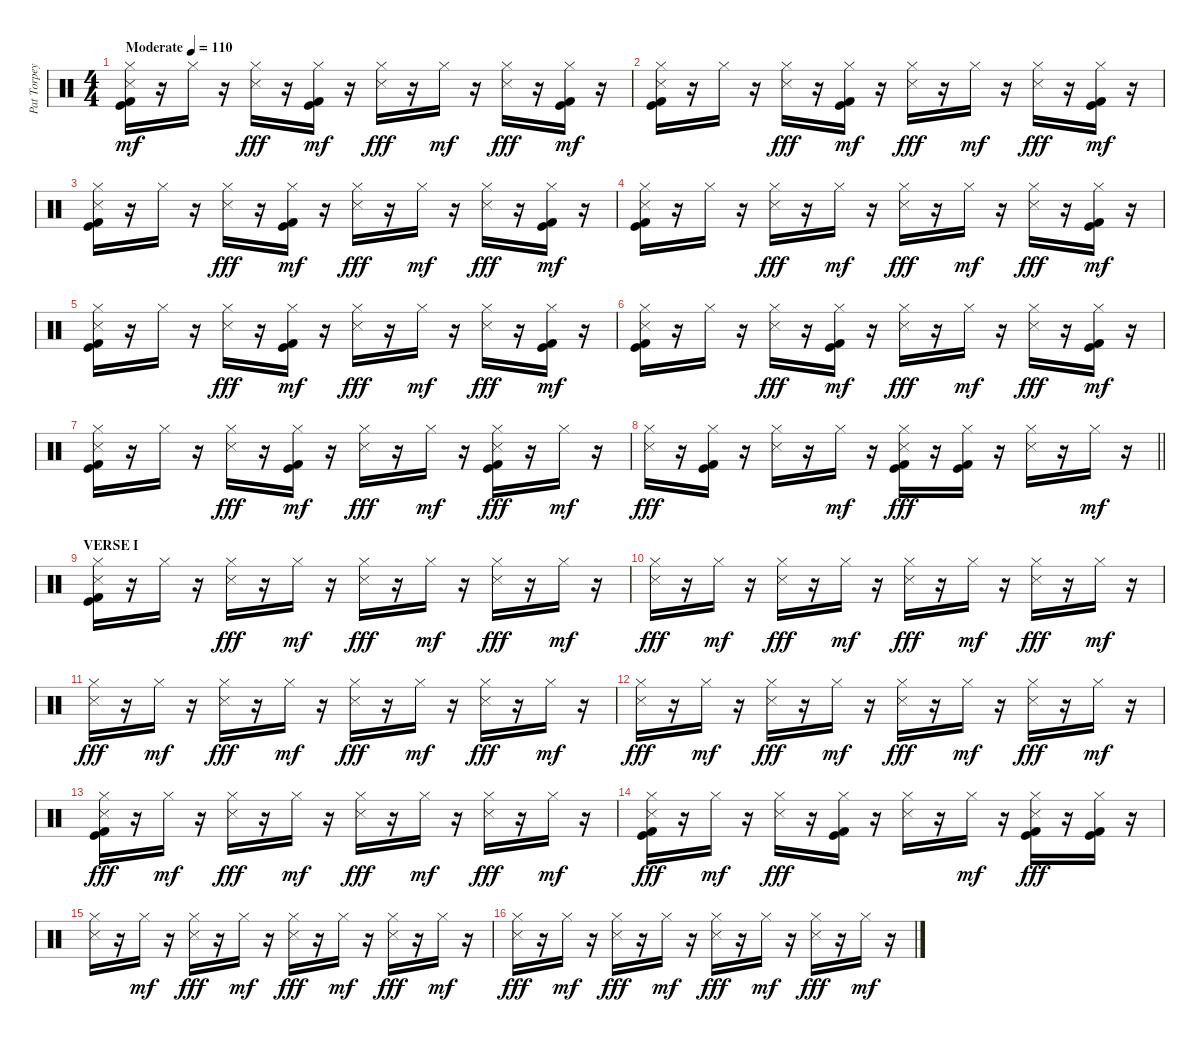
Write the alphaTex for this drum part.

\track ("Pat Torpey" "Pat Torpey") {instrument percussion}
\staff {score}
\articulation defaults
\ts (4 4)
\tempo (110 "Moderate")
\clef neutral
\ks c
("Snare (side stick) 3" "Hi-Hat (closed)" "Kick (hit)" "Kick (hit) 2").16{dy mf} r.16 "Hi-Hat (closed)".16 r.16 ("Snare (side stick) 3" "Hi-Hat (closed)").16{dy fff} r.16 ("Hi-Hat (closed)" "Kick (hit)" "Kick (hit) 2").16{dy mf} r.16 ("Snare (side stick) 3" "Hi-Hat (closed)").16{dy fff} r.16 "Hi-Hat (closed)".16{dy mf} r.16 ("Snare (side stick) 3" "Hi-Hat (closed)").16{dy fff} r.16 ("Hi-Hat (closed)" "Kick (hit)" "Kick (hit) 2").16{dy mf} r.16 |
("Snare (side stick) 3" "Hi-Hat (closed)" "Kick (hit)" "Kick (hit) 2").16 r.16 "Hi-Hat (closed)".16 r.16 ("Snare (side stick) 3" "Hi-Hat (closed)").16{dy fff} r.16 ("Hi-Hat (closed)" "Kick (hit)" "Kick (hit) 2").16{dy mf} r.16 ("Snare (side stick) 3" "Hi-Hat (closed)").16{dy fff} r.16 "Hi-Hat (closed)".16{dy mf} r.16 ("Snare (side stick) 3" "Hi-Hat (closed)").16{dy fff} r.16 ("Hi-Hat (closed)" "Kick (hit)" "Kick (hit) 2").16{dy mf} r.16 |
("Snare (side stick) 3" "Hi-Hat (closed)" "Kick (hit)" "Kick (hit) 2").16 r.16 "Hi-Hat (closed)".16 r.16 ("Snare (side stick) 3" "Hi-Hat (closed)").16{dy fff} r.16 ("Hi-Hat (closed)" "Kick (hit)" "Kick (hit) 2").16{dy mf} r.16 ("Snare (side stick) 3" "Hi-Hat (closed)").16{dy fff} r.16 "Hi-Hat (closed)".16{dy mf} r.16 ("Snare (side stick) 3" "Hi-Hat (closed)").16{dy fff} r.16 ("Hi-Hat (closed)" "Kick (hit)" "Kick (hit) 2").16{dy mf} r.16 |
("Snare (side stick) 3" "Hi-Hat (closed)" "Kick (hit)" "Kick (hit) 2").16 r.16 "Hi-Hat (closed)".16 r.16 ("Snare (side stick) 3" "Hi-Hat (closed)").16{dy fff} r.16 "Hi-Hat (closed)".16{dy mf} r.16 ("Snare (side stick) 3" "Hi-Hat (closed)").16{dy fff} r.16 "Hi-Hat (closed)".16{dy mf} r.16 ("Snare (side stick) 3" "Hi-Hat (closed)").16{dy fff} r.16 ("Hi-Hat (closed)" "Kick (hit)" "Kick (hit) 2").16{dy mf} r.16 |
("Snare (side stick) 3" "Hi-Hat (closed)" "Kick (hit)" "Kick (hit) 2").16 r.16 "Hi-Hat (closed)".16 r.16 ("Snare (side stick) 3" "Hi-Hat (closed)").16{dy fff} r.16 ("Hi-Hat (closed)" "Kick (hit)" "Kick (hit) 2").16{dy mf} r.16 ("Snare (side stick) 3" "Hi-Hat (closed)").16{dy fff} r.16 "Hi-Hat (closed)".16{dy mf} r.16 ("Snare (side stick) 3" "Hi-Hat (closed)").16{dy fff} r.16 ("Hi-Hat (closed)" "Kick (hit)" "Kick (hit) 2").16{dy mf} r.16 |
("Snare (side stick) 3" "Hi-Hat (closed)" "Kick (hit)" "Kick (hit) 2").16 r.16 "Hi-Hat (closed)".16 r.16 ("Snare (side stick) 3" "Hi-Hat (closed)").16{dy fff} r.16 ("Hi-Hat (closed)" "Kick (hit)" "Kick (hit) 2").16{dy mf} r.16 ("Snare (side stick) 3" "Hi-Hat (closed)").16{dy fff} r.16 "Hi-Hat (closed)".16{dy mf} r.16 ("Snare (side stick) 3" "Hi-Hat (closed)").16{dy fff} r.16 ("Hi-Hat (closed)" "Kick (hit)" "Kick (hit) 2").16{dy mf} r.16 |
("Snare (side stick) 3" "Hi-Hat (closed)" "Kick (hit)" "Kick (hit) 2").16 r.16 "Hi-Hat (closed)".16 r.16 ("Snare (side stick) 3" "Hi-Hat (closed)").16{dy fff} r.16 ("Hi-Hat (closed)" "Kick (hit)" "Kick (hit) 2").16{dy mf} r.16 ("Snare (side stick) 3" "Hi-Hat (closed)").16{dy fff} r.16 "Hi-Hat (closed)".16{dy mf} r.16 ("Snare (side stick) 3" "Hi-Hat (closed)" "Kick (hit)" "Kick (hit) 2").16{dy fff} r.16 "Hi-Hat (closed)".16{dy mf} r.16 |
\barLineRight lightlight
("Snare (side stick) 3" "Hi-Hat (closed)").16{dy fff} r.16 ("Hi-Hat (closed)" "Kick (hit)" "Kick (hit) 2").16 r.16 ("Snare (side stick) 3" "Hi-Hat (closed)").16 r.16 "Hi-Hat (closed)".16{dy mf} r.16 ("Snare (side stick) 3" "Hi-Hat (closed)" "Kick (hit)" "Kick (hit) 2").16{dy fff} r.16 ("Hi-Hat (closed)" "Kick (hit)" "Kick (hit) 2").16 r.16 ("Snare (side stick) 3" "Hi-Hat (closed)").16 r.16 "Hi-Hat (closed)".16{dy mf} r.16 |
\section ("" "VERSE I")
("Snare (side stick) 3" "Hi-Hat (closed)" "Kick (hit)" "Kick (hit) 2").16 r.16 "Hi-Hat (closed)".16 r.16 ("Snare (side stick) 3" "Hi-Hat (closed)").16{dy fff} r.16 "Hi-Hat (closed)".16{dy mf} r.16 ("Snare (side stick) 3" "Hi-Hat (closed)").16{dy fff} r.16 "Hi-Hat (closed)".16{dy mf} r.16 ("Snare (side stick) 3" "Hi-Hat (closed)").16{dy fff} r.16 "Hi-Hat (closed)".16{dy mf} r.16 |
("Snare (side stick) 3" "Hi-Hat (closed)").16{dy fff} r.16 "Hi-Hat (closed)".16{dy mf} r.16 ("Snare (side stick) 3" "Hi-Hat (closed)").16{dy fff} r.16 "Hi-Hat (closed)".16{dy mf} r.16 ("Snare (side stick) 3" "Hi-Hat (closed)").16{dy fff} r.16 "Hi-Hat (closed)".16{dy mf} r.16 ("Snare (side stick) 3" "Hi-Hat (closed)").16{dy fff} r.16 "Hi-Hat (closed)".16{dy mf} r.16 |
("Snare (side stick) 3" "Hi-Hat (closed)").16{dy fff} r.16 "Hi-Hat (closed)".16{dy mf} r.16 ("Snare (side stick) 3" "Hi-Hat (closed)").16{dy fff} r.16 "Hi-Hat (closed)".16{dy mf} r.16 ("Snare (side stick) 3" "Hi-Hat (closed)").16{dy fff} r.16 "Hi-Hat (closed)".16{dy mf} r.16 ("Snare (side stick) 3" "Hi-Hat (closed)").16{dy fff} r.16 "Hi-Hat (closed)".16{dy mf} r.16 |
("Snare (side stick) 3" "Hi-Hat (closed)").16{dy fff} r.16 "Hi-Hat (closed)".16{dy mf} r.16 ("Snare (side stick) 3" "Hi-Hat (closed)").16{dy fff} r.16 "Hi-Hat (closed)".16{dy mf} r.16 ("Snare (side stick) 3" "Hi-Hat (closed)").16{dy fff} r.16 "Hi-Hat (closed)".16{dy mf} r.16 ("Snare (side stick) 3" "Hi-Hat (closed)").16{dy fff} r.16 "Hi-Hat (closed)".16{dy mf} r.16 |
("Snare (side stick) 3" "Hi-Hat (closed)" "Kick (hit)" "Kick (hit) 2").16{dy fff} r.16 "Hi-Hat (closed)".16{dy mf} r.16 ("Snare (side stick) 3" "Hi-Hat (closed)").16{dy fff} r.16 "Hi-Hat (closed)".16{dy mf} r.16 ("Snare (side stick) 3" "Hi-Hat (closed)").16{dy fff} r.16 "Hi-Hat (closed)".16{dy mf} r.16 ("Snare (side stick) 3" "Hi-Hat (closed)").16{dy fff} r.16 "Hi-Hat (closed)".16{dy mf} r.16 |
("Snare (side stick) 3" "Hi-Hat (closed)" "Kick (hit)" "Kick (hit) 2").16{dy fff} r.16 "Hi-Hat (closed)".16{dy mf} r.16 ("Snare (side stick) 3" "Hi-Hat (closed)").16{dy fff} r.16 ("Hi-Hat (closed)" "Kick (hit)" "Kick (hit) 2").16 r.16 ("Snare (side stick) 3" "Hi-Hat (closed)").16 r.16 "Hi-Hat (closed)".16{dy mf} r.16 ("Snare (side stick) 3" "Hi-Hat (closed)" "Kick (hit)" "Kick (hit) 2").16{dy fff} r.16 ("Hi-Hat (closed)" "Kick (hit)" "Kick (hit) 2").16 r.16 |
("Snare (side stick) 3" "Hi-Hat (closed)").16 r.16 "Hi-Hat (closed)".16{dy mf} r.16 ("Snare (side stick) 3" "Hi-Hat (closed)").16{dy fff} r.16 "Hi-Hat (closed)".16{dy mf} r.16 ("Snare (side stick) 3" "Hi-Hat (closed)").16{dy fff} r.16 "Hi-Hat (closed)".16{dy mf} r.16 ("Snare (side stick) 3" "Hi-Hat (closed)").16{dy fff} r.16 "Hi-Hat (closed)".16{dy mf} r.16 |
("Snare (side stick) 3" "Hi-Hat (closed)").16{dy fff} r.16 "Hi-Hat (closed)".16{dy mf} r.16 ("Snare (side stick) 3" "Hi-Hat (closed)").16{dy fff} r.16 "Hi-Hat (closed)".16{dy mf} r.16 ("Snare (side stick) 3" "Hi-Hat (closed)").16{dy fff} r.16 "Hi-Hat (closed)".16{dy mf} r.16 ("Snare (side stick) 3" "Hi-Hat (closed)").16{dy fff} r.16 "Hi-Hat (closed)".16{dy mf} r.16
